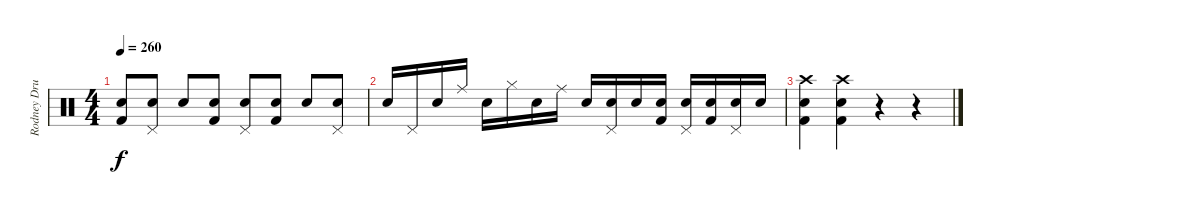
\track ("Rodney Drums" "Rodney Dru") {instrument percussion}
\staff {score}
\articulation defaults
\ts (4 4)
\tempo 260
\clef neutral
\ks c
("Electric Snare (hit)" "Kick (hit) 2").8{dy f} ("Pedal Hi-Hat (hit)" "Electric Snare (hit)").8 "Electric Snare (hit)".8 ("Electric Snare (hit)" "Kick (hit) 2").8 ("Pedal Hi-Hat (hit)" "Electric Snare (hit)").8 ("Electric Snare (hit)" "Kick (hit) 2").8 "Electric Snare (hit)".8 ("Pedal Hi-Hat (hit)" "Electric Snare (hit)").8 |
"Electric Snare (hit)".16 "Pedal Hi-Hat (hit)".16 "Electric Snare (hit)".16 "Ride (middle)".16 "Electric Snare (hit)".16 "Hi-Hat (closed)".16 "Electric Snare (hit)".16 "Ride (middle)".16 "Electric Snare (hit)".16 ("Pedal Hi-Hat (hit)" "Electric Snare (hit)").16 "Electric Snare (hit)".16 ("Electric Snare (hit)" "Kick (hit) 2").16 ("Pedal Hi-Hat (hit)" "Electric Snare (hit)").16 ("Electric Snare (hit)" "Kick (hit) 2").16 ("Pedal Hi-Hat (hit)" "Electric Snare (hit)").16 "Electric Snare (hit)".16 |
("Crash high (hit)" "Electric Snare (hit)" "Kick (hit) 2").4 ("Crash high (hit)" "Electric Snare (hit)" "Kick (hit) 2").4 r.4 r.4
